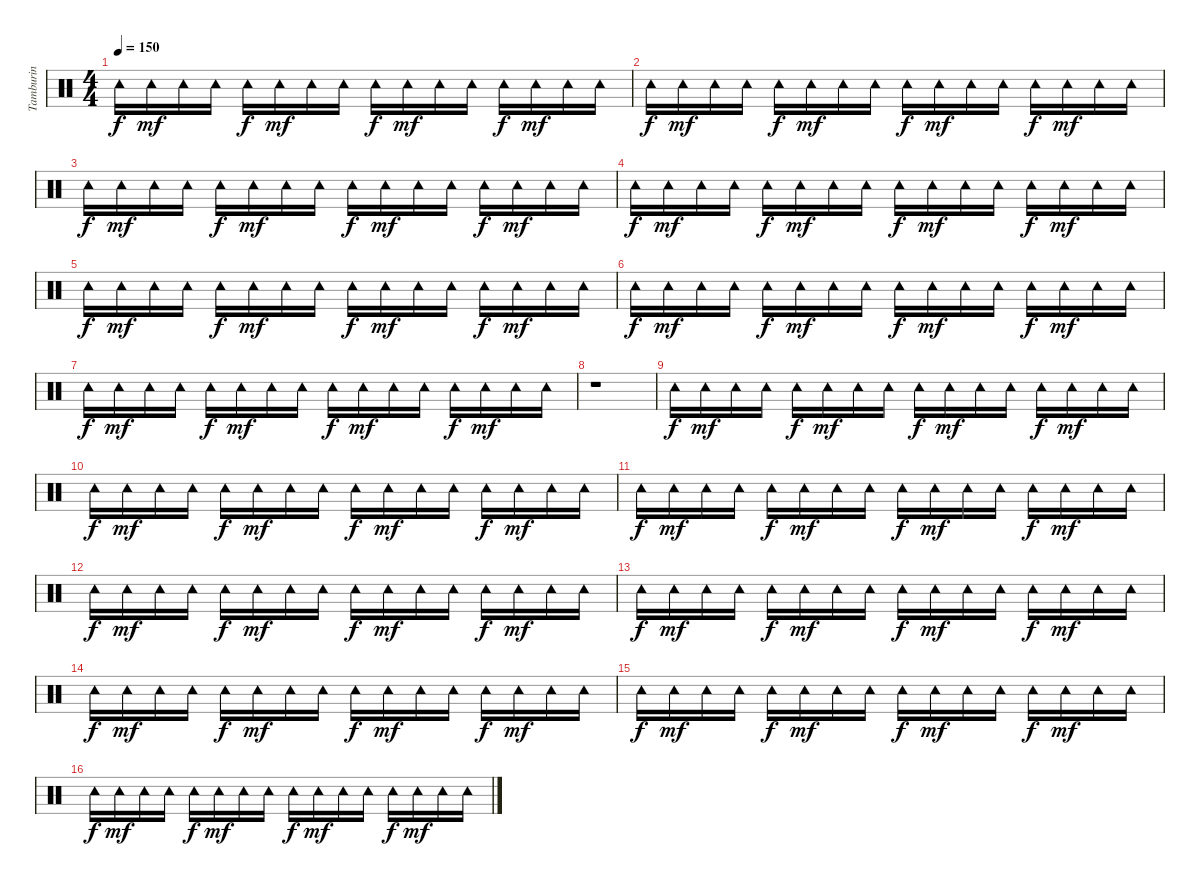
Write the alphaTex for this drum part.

\track ("Tamburin" "Tamburin") {instrument percussion}
\staff {score}
\articulation defaults
\ts (4 4)
\tempo 150
\clef neutral
\ks c "Tambourine (hit)".16{dy f} "Tambourine (hit)".16{dy mf} "Tambourine (hit)".16 "Tambourine (hit)".16 "Tambourine (hit)".16{dy f} "Tambourine (hit)".16{dy mf} "Tambourine (hit)".16 "Tambourine (hit)".16 "Tambourine (hit)".16{dy f} "Tambourine (hit)".16{dy mf} "Tambourine (hit)".16 "Tambourine (hit)".16 "Tambourine (hit)".16{dy f} "Tambourine (hit)".16{dy mf} "Tambourine (hit)".16 "Tambourine (hit)".16
|
"Tambourine (hit)".16{dy f} "Tambourine (hit)".16{dy mf} "Tambourine (hit)".16 "Tambourine (hit)".16 "Tambourine (hit)".16{dy f} "Tambourine (hit)".16{dy mf} "Tambourine (hit)".16 "Tambourine (hit)".16 "Tambourine (hit)".16{dy f} "Tambourine (hit)".16{dy mf} "Tambourine (hit)".16 "Tambourine (hit)".16 "Tambourine (hit)".16{dy f} "Tambourine (hit)".16{dy mf} "Tambourine (hit)".16 "Tambourine (hit)".16 |
"Tambourine (hit)".16{dy f} "Tambourine (hit)".16{dy mf} "Tambourine (hit)".16 "Tambourine (hit)".16 "Tambourine (hit)".16{dy f} "Tambourine (hit)".16{dy mf} "Tambourine (hit)".16 "Tambourine (hit)".16 "Tambourine (hit)".16{dy f} "Tambourine (hit)".16{dy mf} "Tambourine (hit)".16 "Tambourine (hit)".16 "Tambourine (hit)".16{dy f} "Tambourine (hit)".16{dy mf} "Tambourine (hit)".16 "Tambourine (hit)".16 |
"Tambourine (hit)".16{dy f} "Tambourine (hit)".16{dy mf} "Tambourine (hit)".16 "Tambourine (hit)".16 "Tambourine (hit)".16{dy f} "Tambourine (hit)".16{dy mf} "Tambourine (hit)".16 "Tambourine (hit)".16 "Tambourine (hit)".16{dy f} "Tambourine (hit)".16{dy mf} "Tambourine (hit)".16 "Tambourine (hit)".16 "Tambourine (hit)".16{dy f} "Tambourine (hit)".16{dy mf} "Tambourine (hit)".16 "Tambourine (hit)".16 |
"Tambourine (hit)".16{dy f} "Tambourine (hit)".16{dy mf} "Tambourine (hit)".16 "Tambourine (hit)".16 "Tambourine (hit)".16{dy f} "Tambourine (hit)".16{dy mf} "Tambourine (hit)".16 "Tambourine (hit)".16 "Tambourine (hit)".16{dy f} "Tambourine (hit)".16{dy mf} "Tambourine (hit)".16 "Tambourine (hit)".16 "Tambourine (hit)".16{dy f} "Tambourine (hit)".16{dy mf} "Tambourine (hit)".16 "Tambourine (hit)".16 |
"Tambourine (hit)".16{dy f} "Tambourine (hit)".16{dy mf} "Tambourine (hit)".16 "Tambourine (hit)".16 "Tambourine (hit)".16{dy f} "Tambourine (hit)".16{dy mf} "Tambourine (hit)".16 "Tambourine (hit)".16 "Tambourine (hit)".16{dy f} "Tambourine (hit)".16{dy mf} "Tambourine (hit)".16 "Tambourine (hit)".16 "Tambourine (hit)".16{dy f} "Tambourine (hit)".16{dy mf} "Tambourine (hit)".16 "Tambourine (hit)".16 |
"Tambourine (hit)".16{dy f} "Tambourine (hit)".16{dy mf} "Tambourine (hit)".16 "Tambourine (hit)".16 "Tambourine (hit)".16{dy f} "Tambourine (hit)".16{dy mf} "Tambourine (hit)".16 "Tambourine (hit)".16 "Tambourine (hit)".16{dy f} "Tambourine (hit)".16{dy mf} "Tambourine (hit)".16 "Tambourine (hit)".16 "Tambourine (hit)".16{dy f} "Tambourine (hit)".16{dy mf} "Tambourine (hit)".16 "Tambourine (hit)".16 |
r.1 |
"Tambourine (hit)".16{dy f} "Tambourine (hit)".16{dy mf} "Tambourine (hit)".16 "Tambourine (hit)".16 "Tambourine (hit)".16{dy f} "Tambourine (hit)".16{dy mf} "Tambourine (hit)".16 "Tambourine (hit)".16 "Tambourine (hit)".16{dy f} "Tambourine (hit)".16{dy mf} "Tambourine (hit)".16 "Tambourine (hit)".16 "Tambourine (hit)".16{dy f} "Tambourine (hit)".16{dy mf} "Tambourine (hit)".16 "Tambourine (hit)".16 |
"Tambourine (hit)".16{dy f} "Tambourine (hit)".16{dy mf} "Tambourine (hit)".16 "Tambourine (hit)".16 "Tambourine (hit)".16{dy f} "Tambourine (hit)".16{dy mf} "Tambourine (hit)".16 "Tambourine (hit)".16 "Tambourine (hit)".16{dy f} "Tambourine (hit)".16{dy mf} "Tambourine (hit)".16 "Tambourine (hit)".16 "Tambourine (hit)".16{dy f} "Tambourine (hit)".16{dy mf} "Tambourine (hit)".16 "Tambourine (hit)".16 |
"Tambourine (hit)".16{dy f} "Tambourine (hit)".16{dy mf} "Tambourine (hit)".16 "Tambourine (hit)".16 "Tambourine (hit)".16{dy f} "Tambourine (hit)".16{dy mf} "Tambourine (hit)".16 "Tambourine (hit)".16 "Tambourine (hit)".16{dy f} "Tambourine (hit)".16{dy mf} "Tambourine (hit)".16 "Tambourine (hit)".16 "Tambourine (hit)".16{dy f} "Tambourine (hit)".16{dy mf} "Tambourine (hit)".16 "Tambourine (hit)".16 |
"Tambourine (hit)".16{dy f} "Tambourine (hit)".16{dy mf} "Tambourine (hit)".16 "Tambourine (hit)".16 "Tambourine (hit)".16{dy f} "Tambourine (hit)".16{dy mf} "Tambourine (hit)".16 "Tambourine (hit)".16 "Tambourine (hit)".16{dy f} "Tambourine (hit)".16{dy mf} "Tambourine (hit)".16 "Tambourine (hit)".16 "Tambourine (hit)".16{dy f} "Tambourine (hit)".16{dy mf} "Tambourine (hit)".16 "Tambourine (hit)".16 |
"Tambourine (hit)".16{dy f} "Tambourine (hit)".16{dy mf} "Tambourine (hit)".16 "Tambourine (hit)".16 "Tambourine (hit)".16{dy f} "Tambourine (hit)".16{dy mf} "Tambourine (hit)".16 "Tambourine (hit)".16 "Tambourine (hit)".16{dy f} "Tambourine (hit)".16{dy mf} "Tambourine (hit)".16 "Tambourine (hit)".16 "Tambourine (hit)".16{dy f} "Tambourine (hit)".16{dy mf} "Tambourine (hit)".16 "Tambourine (hit)".16 |
"Tambourine (hit)".16{dy f} "Tambourine (hit)".16{dy mf} "Tambourine (hit)".16 "Tambourine (hit)".16 "Tambourine (hit)".16{dy f} "Tambourine (hit)".16{dy mf} "Tambourine (hit)".16 "Tambourine (hit)".16 "Tambourine (hit)".16{dy f} "Tambourine (hit)".16{dy mf} "Tambourine (hit)".16 "Tambourine (hit)".16 "Tambourine (hit)".16{dy f} "Tambourine (hit)".16{dy mf} "Tambourine (hit)".16 "Tambourine (hit)".16 |
"Tambourine (hit)".16{dy f} "Tambourine (hit)".16{dy mf} "Tambourine (hit)".16 "Tambourine (hit)".16 "Tambourine (hit)".16{dy f} "Tambourine (hit)".16{dy mf} "Tambourine (hit)".16 "Tambourine (hit)".16 "Tambourine (hit)".16{dy f} "Tambourine (hit)".16{dy mf} "Tambourine (hit)".16 "Tambourine (hit)".16 "Tambourine (hit)".16{dy f} "Tambourine (hit)".16{dy mf} "Tambourine (hit)".16 "Tambourine (hit)".16 |
"Tambourine (hit)".16{dy f} "Tambourine (hit)".16{dy mf} "Tambourine (hit)".16 "Tambourine (hit)".16 "Tambourine (hit)".16{dy f} "Tambourine (hit)".16{dy mf} "Tambourine (hit)".16 "Tambourine (hit)".16 "Tambourine (hit)".16{dy f} "Tambourine (hit)".16{dy mf} "Tambourine (hit)".16 "Tambourine (hit)".16 "Tambourine (hit)".16{dy f} "Tambourine (hit)".16{dy mf} "Tambourine (hit)".16 "Tambourine (hit)".16
